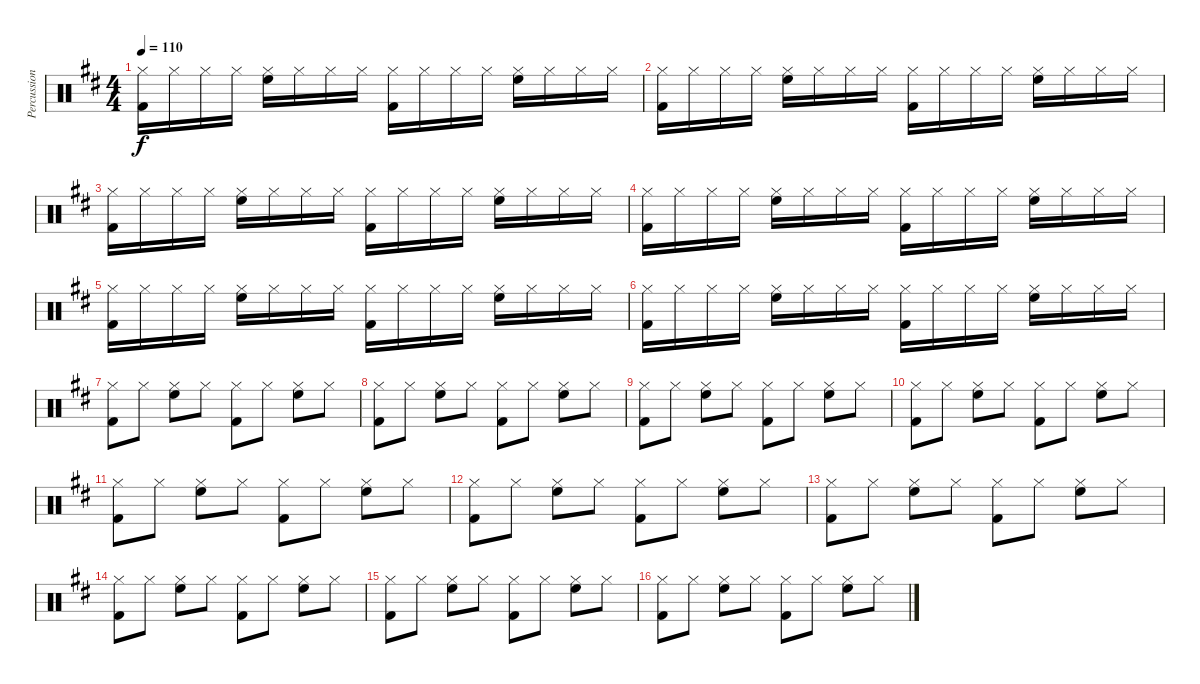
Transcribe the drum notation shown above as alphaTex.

\track ("Percussions" "Percussion") {instrument percussion}
\staff {score}
\articulation defaults
\ts (4 4)
\tempo 110
\clef neutral
\ks d
("Hi-Hat (closed)" "Kick (hit) 2").16{dy f} "Hi-Hat (closed)".16 "Hi-Hat (closed)".16 "Hi-Hat (closed)".16 ("Hi-Hat (closed)" "High Floor Tom (hit)").16 "Hi-Hat (closed)".16 "Hi-Hat (closed)".16 "Hi-Hat (closed)".16 ("Hi-Hat (closed)" "Kick (hit) 2").16 "Hi-Hat (closed)".16 "Hi-Hat (closed)".16 "Hi-Hat (closed)".16 ("Hi-Hat (closed)" "High Floor Tom (hit)").16 "Hi-Hat (closed)".16 "Hi-Hat (closed)".16 "Hi-Hat (closed)".16 |
("Hi-Hat (closed)" "Kick (hit) 2").16 "Hi-Hat (closed)".16 "Hi-Hat (closed)".16 "Hi-Hat (closed)".16 ("Hi-Hat (closed)" "High Floor Tom (hit)").16 "Hi-Hat (closed)".16 "Hi-Hat (closed)".16 "Hi-Hat (closed)".16 ("Hi-Hat (closed)" "Kick (hit) 2").16 "Hi-Hat (closed)".16 "Hi-Hat (closed)".16 "Hi-Hat (closed)".16 ("Hi-Hat (closed)" "High Floor Tom (hit)").16 "Hi-Hat (closed)".16 "Hi-Hat (closed)".16 "Hi-Hat (closed)".16 |
("Hi-Hat (closed)" "Kick (hit) 2").16 "Hi-Hat (closed)".16 "Hi-Hat (closed)".16 "Hi-Hat (closed)".16 ("Hi-Hat (closed)" "High Floor Tom (hit)").16 "Hi-Hat (closed)".16 "Hi-Hat (closed)".16 "Hi-Hat (closed)".16 ("Hi-Hat (closed)" "Kick (hit) 2").16 "Hi-Hat (closed)".16 "Hi-Hat (closed)".16 "Hi-Hat (closed)".16 ("Hi-Hat (closed)" "High Floor Tom (hit)").16 "Hi-Hat (closed)".16 "Hi-Hat (closed)".16 "Hi-Hat (closed)".16 |
("Hi-Hat (closed)" "Kick (hit) 2").16 "Hi-Hat (closed)".16 "Hi-Hat (closed)".16 "Hi-Hat (closed)".16 ("Hi-Hat (closed)" "High Floor Tom (hit)").16 "Hi-Hat (closed)".16 "Hi-Hat (closed)".16 "Hi-Hat (closed)".16 ("Hi-Hat (closed)" "Kick (hit) 2").16 "Hi-Hat (closed)".16 "Hi-Hat (closed)".16 "Hi-Hat (closed)".16 ("Hi-Hat (closed)" "High Floor Tom (hit)").16 "Hi-Hat (closed)".16 "Hi-Hat (closed)".16 "Hi-Hat (closed)".16 |
("Hi-Hat (closed)" "Kick (hit) 2").16 "Hi-Hat (closed)".16 "Hi-Hat (closed)".16 "Hi-Hat (closed)".16 ("Hi-Hat (closed)" "High Floor Tom (hit)").16 "Hi-Hat (closed)".16 "Hi-Hat (closed)".16 "Hi-Hat (closed)".16 ("Hi-Hat (closed)" "Kick (hit) 2").16 "Hi-Hat (closed)".16 "Hi-Hat (closed)".16 "Hi-Hat (closed)".16 ("Hi-Hat (closed)" "High Floor Tom (hit)").16 "Hi-Hat (closed)".16 "Hi-Hat (closed)".16 "Hi-Hat (closed)".16 |
("Hi-Hat (closed)" "Kick (hit) 2").16 "Hi-Hat (closed)".16 "Hi-Hat (closed)".16 "Hi-Hat (closed)".16 ("Hi-Hat (closed)" "High Floor Tom (hit)").16 "Hi-Hat (closed)".16 "Hi-Hat (closed)".16 "Hi-Hat (closed)".16 ("Hi-Hat (closed)" "Kick (hit) 2").16 "Hi-Hat (closed)".16 "Hi-Hat (closed)".16 "Hi-Hat (closed)".16 ("Hi-Hat (closed)" "High Floor Tom (hit)").16 "Hi-Hat (closed)".16 "Hi-Hat (closed)".16 "Hi-Hat (closed)".16 |
("Hi-Hat (closed)" "Kick (hit) 2").8 "Hi-Hat (closed)".8 ("Hi-Hat (closed)" "High Floor Tom (hit)").8 "Hi-Hat (closed)".8 ("Hi-Hat (closed)" "Kick (hit) 2").8 "Hi-Hat (closed)".8 ("Hi-Hat (closed)" "High Floor Tom (hit)").8 "Hi-Hat (closed)".8 |
("Hi-Hat (closed)" "Kick (hit) 2").8 "Hi-Hat (closed)".8 ("Hi-Hat (closed)" "High Floor Tom (hit)").8 "Hi-Hat (closed)".8 ("Hi-Hat (closed)" "Kick (hit) 2").8 "Hi-Hat (closed)".8 ("Hi-Hat (closed)" "High Floor Tom (hit)").8 "Hi-Hat (closed)".8 |
("Hi-Hat (closed)" "Kick (hit) 2").8 "Hi-Hat (closed)".8 ("Hi-Hat (closed)" "High Floor Tom (hit)").8 "Hi-Hat (closed)".8 ("Hi-Hat (closed)" "Kick (hit) 2").8 "Hi-Hat (closed)".8 ("Hi-Hat (closed)" "High Floor Tom (hit)").8 "Hi-Hat (closed)".8 |
("Hi-Hat (closed)" "Kick (hit) 2").8 "Hi-Hat (closed)".8 ("Hi-Hat (closed)" "High Floor Tom (hit)").8 "Hi-Hat (closed)".8 ("Hi-Hat (closed)" "Kick (hit) 2").8 "Hi-Hat (closed)".8 ("Hi-Hat (closed)" "High Floor Tom (hit)").8 "Hi-Hat (closed)".8 |
("Hi-Hat (closed)" "Kick (hit) 2").8 "Hi-Hat (closed)".8 ("Hi-Hat (closed)" "High Floor Tom (hit)").8 "Hi-Hat (closed)".8 ("Hi-Hat (closed)" "Kick (hit) 2").8 "Hi-Hat (closed)".8 ("Hi-Hat (closed)" "High Floor Tom (hit)").8 "Hi-Hat (closed)".8 |
("Hi-Hat (closed)" "Kick (hit) 2").8 "Hi-Hat (closed)".8 ("Hi-Hat (closed)" "High Floor Tom (hit)").8 "Hi-Hat (closed)".8 ("Hi-Hat (closed)" "Kick (hit) 2").8 "Hi-Hat (closed)".8 ("Hi-Hat (closed)" "High Floor Tom (hit)").8 "Hi-Hat (closed)".8 |
("Hi-Hat (closed)" "Kick (hit) 2").8 "Hi-Hat (closed)".8 ("Hi-Hat (closed)" "High Floor Tom (hit)").8 "Hi-Hat (closed)".8 ("Hi-Hat (closed)" "Kick (hit) 2").8 "Hi-Hat (closed)".8 ("Hi-Hat (closed)" "High Floor Tom (hit)").8 "Hi-Hat (closed)".8 |
("Hi-Hat (closed)" "Kick (hit) 2").8 "Hi-Hat (closed)".8 ("Hi-Hat (closed)" "High Floor Tom (hit)").8 "Hi-Hat (closed)".8 ("Hi-Hat (closed)" "Kick (hit) 2").8 "Hi-Hat (closed)".8 ("Hi-Hat (closed)" "High Floor Tom (hit)").8 "Hi-Hat (closed)".8 |
("Hi-Hat (closed)" "Kick (hit) 2").8 "Hi-Hat (closed)".8 ("Hi-Hat (closed)" "High Floor Tom (hit)").8 "Hi-Hat (closed)".8 ("Hi-Hat (closed)" "Kick (hit) 2").8 "Hi-Hat (closed)".8 ("Hi-Hat (closed)" "High Floor Tom (hit)").8 "Hi-Hat (closed)".8 |
("Hi-Hat (closed)" "Kick (hit) 2").8 "Hi-Hat (closed)".8 ("Hi-Hat (closed)" "High Floor Tom (hit)").8 "Hi-Hat (closed)".8 ("Hi-Hat (closed)" "Kick (hit) 2").8 "Hi-Hat (closed)".8 ("Hi-Hat (closed)" "High Floor Tom (hit)").8 "Hi-Hat (closed)".8
